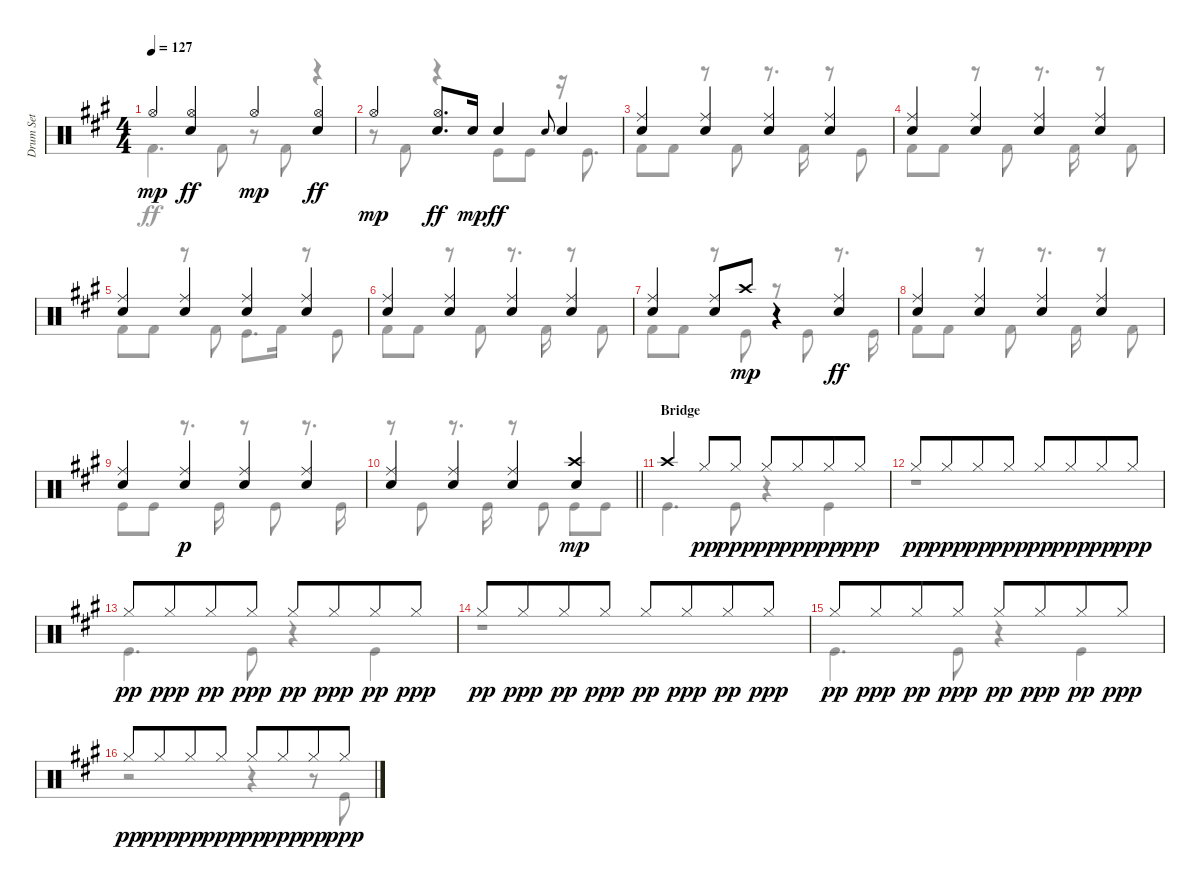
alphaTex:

\track ("Drum Set" "Drum Set") {instrument percussion}
\staff {score}
\articulation defaults
\voice
\ts (4 4)
\tempo 127
\clef neutral
\ks a "Hi-Hat (open)".4{dy mp}
("Hi-Hat (open)" "Electric Snare (hit)").4{dy ff} "Hi-Hat (open)".4{dy mp} ("Hi-Hat (open)" "Electric Snare (hit)").4{dy ff} |
"Hi-Hat (open)".4{dy mp} ("Hi-Hat (open)" "Electric Snare (hit)").8{d dy ff} "Electric Snare (hit)".16{dy mp} "Electric Snare (hit)".4{dy ff} "Electric Snare (hit)".8{gr onbeat} "Electric Snare (hit)".4 |
("Ride (middle)" "Electric Snare (hit)").4 ("Ride (middle)" "Electric Snare (hit)").4 ("Ride (middle)" "Electric Snare (hit)").4 ("Ride (middle)" "Electric Snare (hit)").4 |
("Ride (middle)" "Electric Snare (hit)").4 ("Ride (middle)" "Electric Snare (hit)").4 ("Ride (middle)" "Electric Snare (hit)").4 ("Ride (middle)" "Electric Snare (hit)").4 |
("Ride (middle)" "Electric Snare (hit)").4 ("Ride (middle)" "Electric Snare (hit)").4 ("Ride (middle)" "Electric Snare (hit)").4 ("Ride (middle)" "Electric Snare (hit)").4 |
("Ride (middle)" "Electric Snare (hit)").4 ("Ride (middle)" "Electric Snare (hit)").4 ("Ride (middle)" "Electric Snare (hit)").4 ("Ride (middle)" "Electric Snare (hit)").4 |
("Ride (middle)" "Electric Snare (hit)").4 ("Ride (middle)" "Electric Snare (hit)").8 "Crash high (hit)".8{dy mp} r.4 ("Ride (middle)" "Electric Snare (hit)").4{dy ff} |
("Ride (middle)" "Electric Snare (hit)").4 ("Ride (middle)" "Electric Snare (hit)").4 ("Ride (middle)" "Electric Snare (hit)").4 ("Ride (middle)" "Electric Snare (hit)").4 |
("Ride (middle)" "Electric Snare (hit)").4 ("Electric Snare (hit)" "Ride (middle)").4{dy p} ("Electric Snare (hit)" "Ride (middle)").4 ("Electric Snare (hit)" "Ride (middle)").4 |
\barLineRight lightlight
("Electric Snare (hit)" "Ride (middle)").4 ("Electric Snare (hit)" "Ride (middle)").4 ("Electric Snare (hit)" "Ride (middle)").4 ("Electric Snare (hit)" "Crash high (hit)").4{dy mp} |
\section ("" "Bridge")
"Crash high (hit)".4 "Hi-Hat (closed)".8{dy pp} "Hi-Hat (closed)".8{dy ppp} "Hi-Hat (closed)".8{dy pp} "Hi-Hat (closed)".8{dy ppp beam merge} "Hi-Hat (closed)".8{dy pp} "Hi-Hat (closed)".8{dy ppp} |
"Hi-Hat (closed)".8{dy pp} "Hi-Hat (closed)".8{dy ppp beam merge} "Hi-Hat (closed)".8{dy pp} "Hi-Hat (closed)".8{dy ppp} "Hi-Hat (closed)".8{dy pp} "Hi-Hat (closed)".8{dy ppp beam merge} "Hi-Hat (closed)".8{dy pp} "Hi-Hat (closed)".8{dy ppp} |
"Hi-Hat (closed)".8{dy pp} "Hi-Hat (closed)".8{dy ppp beam merge} "Hi-Hat (closed)".8{dy pp} "Hi-Hat (closed)".8{dy ppp} "Hi-Hat (closed)".8{dy pp} "Hi-Hat (closed)".8{dy ppp beam merge} "Hi-Hat (closed)".8{dy pp} "Hi-Hat (closed)".8{dy ppp} |
"Hi-Hat (closed)".8{dy pp} "Hi-Hat (closed)".8{dy ppp beam merge} "Hi-Hat (closed)".8{dy pp} "Hi-Hat (closed)".8{dy ppp} "Hi-Hat (closed)".8{dy pp} "Hi-Hat (closed)".8{dy ppp beam merge} "Hi-Hat (closed)".8{dy pp} "Hi-Hat (closed)".8{dy ppp} |
"Hi-Hat (closed)".8{dy pp} "Hi-Hat (closed)".8{dy ppp beam merge} "Hi-Hat (closed)".8{dy pp} "Hi-Hat (closed)".8{dy ppp} "Hi-Hat (closed)".8{dy pp} "Hi-Hat (closed)".8{dy ppp beam merge} "Hi-Hat (closed)".8{dy pp} "Hi-Hat (closed)".8{dy ppp} |
"Hi-Hat (closed)".8{dy pp} "Hi-Hat (closed)".8{dy ppp beam merge} "Hi-Hat (closed)".8{dy pp} "Hi-Hat (closed)".8{dy ppp} "Hi-Hat (closed)".8{dy pp} "Hi-Hat (closed)".8{dy ppp beam merge} "Hi-Hat (closed)".8{dy pp} "Hi-Hat (closed)".8{dy ppp}
\voice
\clef neutral
\ottava regular
\simile none
\ks a "Kick (hit) 2".4{d dy ff} "Kick (hit) 2".8
r.8 "Kick (hit) 2".8 r.4 |
r.8 "Kick (hit) 2".8 r.4 "Kick (hit)".8 "Kick (hit)".8 r.16 "Kick (hit)".8{d} |
"Kick (hit) 2".8 "Kick (hit) 2".8 r.8 "Kick (hit) 2".8 r.8{d} "Kick (hit) 2".16 r.8 "Kick (hit)".8 |
"Kick (hit) 2".8 "Kick (hit) 2".8 r.8 "Kick (hit) 2".8 r.8{d} "Kick (hit) 2".16 r.8 "Kick (hit) 2".8 |
"Kick (hit) 2".8 "Kick (hit) 2".8 r.8 "Kick (hit) 2".8 "Kick (hit)".8{d} "Kick (hit) 2".16 r.8 "Kick (hit)".8 |
"Kick (hit) 2".8 "Kick (hit) 2".8 r.8 "Kick (hit) 2".8 r.8{d} "Kick (hit) 2".16 r.8 "Kick (hit) 2".8 |
"Kick (hit) 2".8 "Kick (hit) 2".8 r.8 "Kick (hit)".8 r.8 "Kick (hit)".8 r.8{d} "Kick (hit)".16 |
"Kick (hit) 2".8 "Kick (hit) 2".8 r.8 "Kick (hit) 2".8 r.8{d} "Kick (hit) 2".16 r.8 "Kick (hit) 2".8 |
"Kick (hit)".8 "Kick (hit)".8 r.8{d} "Kick (hit)".16 r.8 "Kick (hit)".8 r.8{d} "Kick (hit)".16 |
\barLineRight lightlight
r.8 "Kick (hit)".8 r.8{d} "Kick (hit)".16 r.8 "Kick (hit)".8 "Kick (hit)".8 "Kick (hit)".8 |
"Kick (hit)".4{d} "Kick (hit)".8 r.4 "Kick (hit)".4 |
r.1 |
"Kick (hit)".4{d} "Kick (hit)".8 r.4 "Kick (hit)".4 |
r.1 |
"Kick (hit)".4{d} "Kick (hit)".8 r.4 "Kick (hit)".4 |
r.2 r.4 r.8 "Kick (hit)".8
